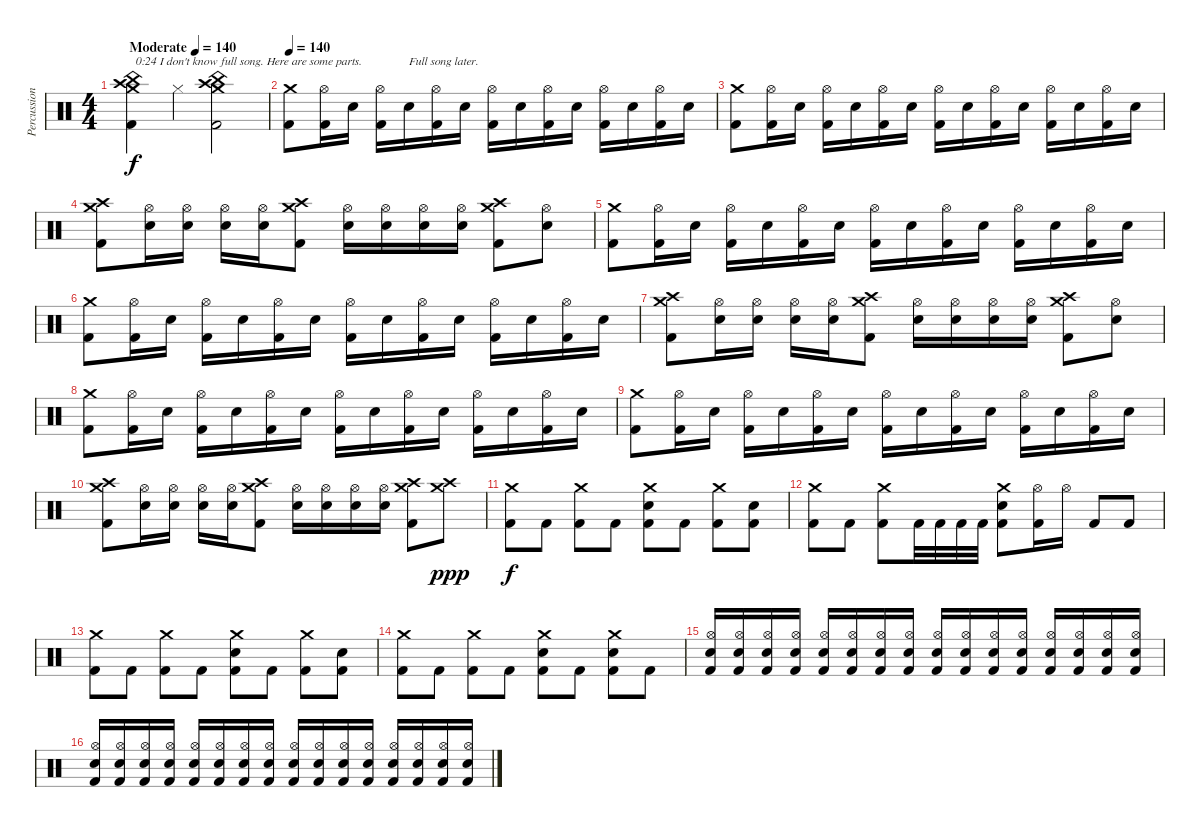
\track ("Percussion" "Percussion") {instrument percussion}
\staff {score}
\articulation defaults
\ts (4 4)
\tempo (140 "Moderate")
\tempo 120
\tempo (140 "Moderate")
\clef neutral
\ks c
("Crash medium (hit)" "Crash high (hit)" "China (hit)" "Kick (hit) 2").4{txt "0:24 I don't know full song. Here are some parts." dy f} "Hi-Hat (closed)".4 ("Crash medium (hit)" "Crash high (hit)" "China (hit)" "Kick (hit) 2").2 |
\tempo 140
("Crash medium (hit)" "Kick (hit) 2").8 ("Hi-Hat (open)" "Kick (hit) 2").16 "Electric Snare (hit)".16 ("Hi-Hat (open)" "Kick (hit) 2").16{txt " "} "Electric Snare (hit)".16{txt "Full song later."} ("Hi-Hat (open)" "Kick (hit) 2").16 "Electric Snare (hit)".16 ("Hi-Hat (open)" "Kick (hit) 2").16 "Electric Snare (hit)".16 ("Hi-Hat (open)" "Kick (hit) 2").16 "Electric Snare (hit)".16 ("Hi-Hat (open)" "Kick (hit) 2").16 "Electric Snare (hit)".16 ("Hi-Hat (open)" "Kick (hit) 2").16 "Electric Snare (hit)".16 |
("Crash medium (hit)" "Kick (hit) 2").8 ("Hi-Hat (open)" "Kick (hit) 2").16 "Electric Snare (hit)".16 ("Hi-Hat (open)" "Kick (hit) 2").16 "Electric Snare (hit)".16 ("Hi-Hat (open)" "Kick (hit) 2").16 "Electric Snare (hit)".16 ("Hi-Hat (open)" "Kick (hit) 2").16 "Electric Snare (hit)".16 ("Hi-Hat (open)" "Kick (hit) 2").16 "Electric Snare (hit)".16 ("Hi-Hat (open)" "Kick (hit) 2").16 "Electric Snare (hit)".16 ("Hi-Hat (open)" "Kick (hit) 2").16 "Electric Snare (hit)".16 |
("Crash medium (hit)" "Crash high (hit)" "Kick (hit) 2").8 ("Hi-Hat (open)" "Electric Snare (hit)").16 ("Hi-Hat (open)" "Electric Snare (hit)").16 ("Hi-Hat (open)" "Electric Snare (hit)").16 ("Hi-Hat (open)" "Electric Snare (hit)").16 ("Crash medium (hit)" "Crash high (hit)" "Kick (hit) 2").8 ("Hi-Hat (open)" "Electric Snare (hit)").16 ("Hi-Hat (open)" "Electric Snare (hit)").16 ("Hi-Hat (open)" "Electric Snare (hit)").16 ("Hi-Hat (open)" "Electric Snare (hit)").16 ("Crash medium (hit)" "Crash high (hit)" "Kick (hit) 2").8 ("Hi-Hat (open)" "Electric Snare (hit)").8 |
("Crash medium (hit)" "Kick (hit) 2").8 ("Hi-Hat (open)" "Kick (hit) 2").16 "Electric Snare (hit)".16 ("Hi-Hat (open)" "Kick (hit) 2").16 "Electric Snare (hit)".16 ("Hi-Hat (open)" "Kick (hit) 2").16 "Electric Snare (hit)".16 ("Hi-Hat (open)" "Kick (hit) 2").16 "Electric Snare (hit)".16 ("Hi-Hat (open)" "Kick (hit) 2").16 "Electric Snare (hit)".16 ("Hi-Hat (open)" "Kick (hit) 2").16 "Electric Snare (hit)".16 ("Hi-Hat (open)" "Kick (hit) 2").16 "Electric Snare (hit)".16 |
("Crash medium (hit)" "Kick (hit) 2").8 ("Hi-Hat (open)" "Kick (hit) 2").16 "Electric Snare (hit)".16 ("Hi-Hat (open)" "Kick (hit) 2").16 "Electric Snare (hit)".16 ("Hi-Hat (open)" "Kick (hit) 2").16 "Electric Snare (hit)".16 ("Hi-Hat (open)" "Kick (hit) 2").16 "Electric Snare (hit)".16 ("Hi-Hat (open)" "Kick (hit) 2").16 "Electric Snare (hit)".16 ("Hi-Hat (open)" "Kick (hit) 2").16 "Electric Snare (hit)".16 ("Hi-Hat (open)" "Kick (hit) 2").16 "Electric Snare (hit)".16 |
("Crash medium (hit)" "Crash high (hit)" "Kick (hit) 2").8 ("Hi-Hat (open)" "Electric Snare (hit)").16 ("Hi-Hat (open)" "Electric Snare (hit)").16 ("Hi-Hat (open)" "Electric Snare (hit)").16 ("Hi-Hat (open)" "Electric Snare (hit)").16 ("Crash medium (hit)" "Crash high (hit)" "Kick (hit) 2").8 ("Hi-Hat (open)" "Electric Snare (hit)").16 ("Hi-Hat (open)" "Electric Snare (hit)").16 ("Hi-Hat (open)" "Electric Snare (hit)").16 ("Hi-Hat (open)" "Electric Snare (hit)").16 ("Crash medium (hit)" "Crash high (hit)" "Kick (hit) 2").8 ("Hi-Hat (open)" "Electric Snare (hit)").8 |
("Crash medium (hit)" "Kick (hit) 2").8 ("Hi-Hat (open)" "Kick (hit) 2").16 "Electric Snare (hit)".16 ("Hi-Hat (open)" "Kick (hit) 2").16 "Electric Snare (hit)".16 ("Hi-Hat (open)" "Kick (hit) 2").16 "Electric Snare (hit)".16 ("Hi-Hat (open)" "Kick (hit) 2").16 "Electric Snare (hit)".16 ("Hi-Hat (open)" "Kick (hit) 2").16 "Electric Snare (hit)".16 ("Hi-Hat (open)" "Kick (hit) 2").16 "Electric Snare (hit)".16 ("Hi-Hat (open)" "Kick (hit) 2").16 "Electric Snare (hit)".16 |
("Crash medium (hit)" "Kick (hit) 2").8 ("Hi-Hat (open)" "Kick (hit) 2").16 "Electric Snare (hit)".16 ("Hi-Hat (open)" "Kick (hit) 2").16 "Electric Snare (hit)".16 ("Hi-Hat (open)" "Kick (hit) 2").16 "Electric Snare (hit)".16 ("Hi-Hat (open)" "Kick (hit) 2").16 "Electric Snare (hit)".16 ("Hi-Hat (open)" "Kick (hit) 2").16 "Electric Snare (hit)".16 ("Hi-Hat (open)" "Kick (hit) 2").16 "Electric Snare (hit)".16 ("Hi-Hat (open)" "Kick (hit) 2").16 "Electric Snare (hit)".16 |
("Crash medium (hit)" "Crash high (hit)" "Kick (hit) 2").8 ("Hi-Hat (open)" "Electric Snare (hit)").16 ("Hi-Hat (open)" "Electric Snare (hit)").16 ("Hi-Hat (open)" "Electric Snare (hit)").16 ("Hi-Hat (open)" "Electric Snare (hit)").16 ("Crash medium (hit)" "Crash high (hit)" "Kick (hit) 2").8 ("Hi-Hat (open)" "Electric Snare (hit)").16 ("Hi-Hat (open)" "Electric Snare (hit)").16 ("Hi-Hat (open)" "Electric Snare (hit)").16 ("Hi-Hat (open)" "Electric Snare (hit)").16 ("Crash medium (hit)" "Crash high (hit)" "Kick (hit) 2").8 ("Crash medium (hit)" "Crash high (hit)").8{dy ppp} |
("Crash medium (hit)" "Kick (hit) 2").8{dy f} "Kick (hit) 2".8 ("Crash medium (hit)" "Kick (hit) 2").8 "Kick (hit) 2".8 ("Crash medium (hit)" "Electric Snare (hit)" "Kick (hit) 2").8 "Kick (hit) 2".8 ("Crash medium (hit)" "Kick (hit) 2").8 ("Electric Snare (hit)" "Kick (hit) 2").8 |
("Crash medium (hit)" "Kick (hit) 2").8 "Kick (hit) 2".8 ("Crash medium (hit)" "Kick (hit) 2").8 "Kick (hit) 2".32 "Kick (hit) 2".32 "Kick (hit) 2".32 "Kick (hit) 2".32 ("Crash medium (hit)" "Electric Snare (hit)" "Kick (hit) 2").8 ("Hi-Hat (open)" "Kick (hit) 2").16 "Hi-Hat (open)".16 "Kick (hit) 2".8 "Kick (hit) 2".8 |
("Crash medium (hit)" "Kick (hit) 2").8 "Kick (hit) 2".8 ("Crash medium (hit)" "Kick (hit) 2").8 "Kick (hit) 2".8 ("Crash medium (hit)" "Electric Snare (hit)" "Kick (hit) 2").8 "Kick (hit) 2".8 ("Crash medium (hit)" "Kick (hit) 2").8 ("Electric Snare (hit)" "Kick (hit) 2").8 |
("Crash medium (hit)" "Kick (hit) 2").8 "Kick (hit) 2".8 ("Crash medium (hit)" "Kick (hit) 2").8 "Kick (hit) 2".8 ("Crash medium (hit)" "Electric Snare (hit)" "Kick (hit) 2").8 "Kick (hit) 2".8 ("Crash medium (hit)" "Electric Snare (hit)" "Kick (hit) 2").8 "Kick (hit) 2".8 |
("Hi-Hat (open)" "Electric Snare (hit)" "Kick (hit) 2").16 ("Hi-Hat (open)" "Electric Snare (hit)" "Kick (hit) 2").16 ("Hi-Hat (open)" "Electric Snare (hit)" "Kick (hit) 2").16 ("Hi-Hat (open)" "Electric Snare (hit)" "Kick (hit) 2").16 ("Hi-Hat (open)" "Electric Snare (hit)" "Kick (hit) 2").16 ("Hi-Hat (open)" "Electric Snare (hit)" "Kick (hit) 2").16 ("Hi-Hat (open)" "Electric Snare (hit)" "Kick (hit) 2").16 ("Hi-Hat (open)" "Electric Snare (hit)" "Kick (hit) 2").16 ("Hi-Hat (open)" "Electric Snare (hit)" "Kick (hit) 2").16 ("Hi-Hat (open)" "Electric Snare (hit)" "Kick (hit) 2").16 ("Hi-Hat (open)" "Electric Snare (hit)" "Kick (hit) 2").16 ("Hi-Hat (open)" "Electric Snare (hit)" "Kick (hit) 2").16 ("Hi-Hat (open)" "Electric Snare (hit)" "Kick (hit) 2").16 ("Hi-Hat (open)" "Electric Snare (hit)" "Kick (hit) 2").16 ("Hi-Hat (open)" "Electric Snare (hit)" "Kick (hit) 2").16 ("Hi-Hat (open)" "Electric Snare (hit)" "Kick (hit) 2").16 |
("Hi-Hat (open)" "Electric Snare (hit)" "Kick (hit) 2").16 ("Hi-Hat (open)" "Electric Snare (hit)" "Kick (hit) 2").16 ("Hi-Hat (open)" "Electric Snare (hit)" "Kick (hit) 2").16 ("Hi-Hat (open)" "Electric Snare (hit)" "Kick (hit) 2").16 ("Hi-Hat (open)" "Electric Snare (hit)" "Kick (hit) 2").16 ("Hi-Hat (open)" "Electric Snare (hit)" "Kick (hit) 2").16 ("Hi-Hat (open)" "Electric Snare (hit)" "Kick (hit) 2").16 ("Hi-Hat (open)" "Electric Snare (hit)" "Kick (hit) 2").16 ("Hi-Hat (open)" "Electric Snare (hit)" "Kick (hit) 2").16 ("Hi-Hat (open)" "Electric Snare (hit)" "Kick (hit) 2").16 ("Hi-Hat (open)" "Electric Snare (hit)" "Kick (hit) 2").16 ("Hi-Hat (open)" "Electric Snare (hit)" "Kick (hit) 2").16 ("Hi-Hat (open)" "Electric Snare (hit)" "Kick (hit) 2").16 ("Hi-Hat (open)" "Electric Snare (hit)" "Kick (hit) 2").16 ("Hi-Hat (open)" "Electric Snare (hit)" "Kick (hit) 2").16 ("Hi-Hat (open)" "Electric Snare (hit)" "Kick (hit) 2").16
